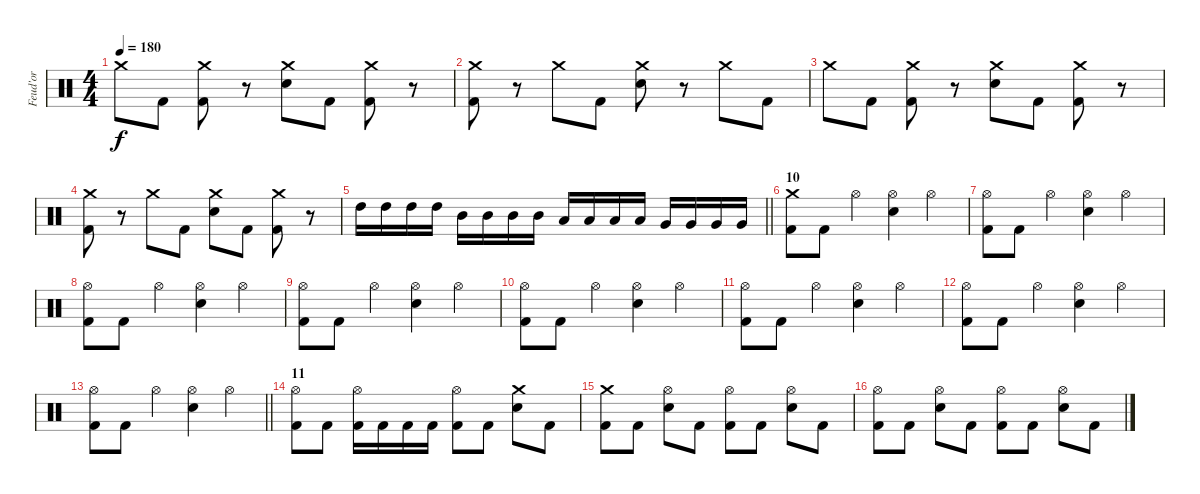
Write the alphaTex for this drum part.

\track ("Feud'or" "Feud'or") {instrument percussion}
\staff {score}
\articulation defaults
\ts (4 4)
\tempo 180
\clef neutral
\ks c "Crash medium (hit)".8{dy f} "Kick (hit) 2".8
("Crash medium (hit)" "Kick (hit) 2").8 r.8 ("Crash medium (hit)" "Snare (hit) 2").8 "Kick (hit) 2".8 ("Crash medium (hit)" "Kick (hit) 2").8 r.8 |
("Crash medium (hit)" "Kick (hit) 2").8 r.8 "Crash medium (hit)".8 "Kick (hit) 2".8 ("Crash medium (hit)" "Snare (hit) 2").8 r.8 "Crash medium (hit)".8 "Kick (hit) 2".8 |
"Crash medium (hit)".8 "Kick (hit) 2".8 ("Crash medium (hit)" "Kick (hit) 2").8 r.8 ("Crash medium (hit)" "Snare (hit) 2").8 "Kick (hit) 2".8 ("Crash medium (hit)" "Kick (hit) 2").8 r.8 |
("Crash medium (hit)" "Kick (hit) 2").8 r.8 "Crash medium (hit)".8 "Kick (hit) 2".8 ("Crash medium (hit)" "Snare (hit) 2").8 "Kick (hit) 2".8 ("Crash medium (hit)" "Kick (hit) 2").8 r.8 |
\barLineRight lightlight "High Tom (hit)".16 "High Tom (hit)".16 "High Tom (hit)".16 "High Tom (hit)".16 "Mid Tom (hit)".16 "Mid Tom (hit)".16 "Mid Tom (hit)".16 "Mid Tom (hit)".16 "Low Tom (hit)".16 "Low Tom (hit)".16 "Low Tom (hit)".16 "Low Tom (hit)".16 "Very Low Tom (hit)".16 "Very Low Tom (hit)".16 "Very Low Tom (hit)".16 "Very Low Tom (hit)".16
|
\section ("" "10")
("Crash medium (hit)" "Kick (hit) 2").8 "Kick (hit) 2".8 "Hi-Hat (open)".4 ("Hi-Hat (open)" "Snare (hit) 2").4 "Hi-Hat (open)".4 |
("Hi-Hat (open)" "Kick (hit) 2").8 "Kick (hit) 2".8 "Hi-Hat (open)".4 ("Hi-Hat (open)" "Snare (hit) 2").4 "Hi-Hat (open)".4 |
("Hi-Hat (open)" "Kick (hit) 2").8 "Kick (hit) 2".8 "Hi-Hat (open)".4 ("Hi-Hat (open)" "Snare (hit) 2").4 "Hi-Hat (open)".4 |
("Hi-Hat (open)" "Kick (hit) 2").8 "Kick (hit) 2".8 "Hi-Hat (open)".4 ("Hi-Hat (open)" "Snare (hit) 2").4 "Hi-Hat (open)".4 |
("Hi-Hat (open)" "Kick (hit) 2").8 "Kick (hit) 2".8 "Hi-Hat (open)".4 ("Hi-Hat (open)" "Snare (hit) 2").4 "Hi-Hat (open)".4 |
("Hi-Hat (open)" "Kick (hit) 2").8 "Kick (hit) 2".8 "Hi-Hat (open)".4 ("Hi-Hat (open)" "Snare (hit) 2").4 "Hi-Hat (open)".4 |
("Hi-Hat (open)" "Kick (hit) 2").8 "Kick (hit) 2".8 "Hi-Hat (open)".4 ("Hi-Hat (open)" "Snare (hit) 2").4 "Hi-Hat (open)".4 |
\barLineRight lightlight
("Hi-Hat (open)" "Kick (hit) 2").8 "Kick (hit) 2".8 "Hi-Hat (open)".4 ("Hi-Hat (open)" "Snare (hit) 2").4 "Hi-Hat (open)".4 |
\section ("" "11")
("Hi-Hat (open)" "Kick (hit) 2").8 "Kick (hit) 2".8 ("Hi-Hat (open)" "Kick (hit) 2").16 "Kick (hit) 2".16 "Kick (hit) 2".16 "Kick (hit) 2".16 ("Hi-Hat (open)" "Kick (hit) 2").8 "Kick (hit) 2".8 ("Crash medium (hit)" "Snare (hit) 2").8 "Kick (hit) 2".8 |
("Crash medium (hit)" "Kick (hit) 2").8 "Kick (hit) 2".8 ("Hi-Hat (open)" "Snare (hit) 2").8 "Kick (hit) 2".8 ("Hi-Hat (open)" "Kick (hit) 2").8 "Kick (hit) 2".8 ("Hi-Hat (open)" "Snare (hit) 2").8 "Kick (hit) 2".8 |
("Hi-Hat (open)" "Kick (hit) 2").8 "Kick (hit) 2".8 ("Hi-Hat (open)" "Snare (hit) 2").8 "Kick (hit) 2".8 ("Hi-Hat (open)" "Kick (hit) 2").8 "Kick (hit) 2".8 ("Hi-Hat (open)" "Snare (hit) 2").8 "Kick (hit) 2".8
